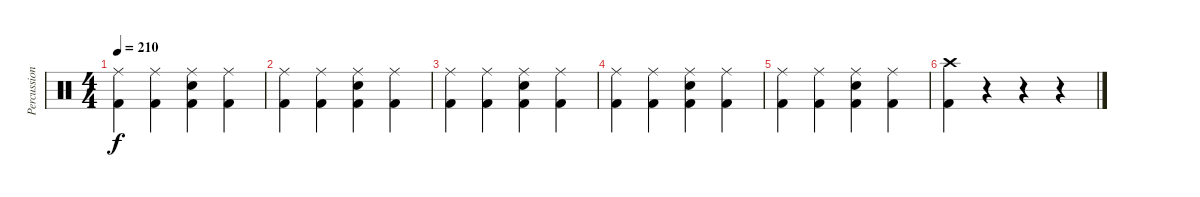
\track ("Percussion" "Percussion") {instrument percussion}
\staff {score}
\articulation defaults
\ts (4 4)
\tempo 210
\clef neutral
\ks c
("Ride (middle)" "Kick (hit) 2").4{dy f} ("Ride (middle)" "Kick (hit) 2").4 ("Ride (middle)" "Snare (hit) 2" "Kick (hit) 2").4 ("Ride (middle)" "Kick (hit) 2").4 |
("Ride (middle)" "Kick (hit) 2").4 ("Ride (middle)" "Kick (hit) 2").4 ("Ride (middle)" "Snare (hit) 2" "Kick (hit) 2").4 ("Ride (middle)" "Kick (hit) 2").4 |
("Ride (middle)" "Kick (hit) 2").4 ("Ride (middle)" "Kick (hit) 2").4 ("Ride (middle)" "Snare (hit) 2" "Kick (hit) 2").4 ("Ride (middle)" "Kick (hit) 2").4 |
("Ride (middle)" "Kick (hit) 2").4 ("Ride (middle)" "Kick (hit) 2").4 ("Ride (middle)" "Snare (hit) 2" "Kick (hit) 2").4 ("Ride (middle)" "Kick (hit) 2").4 |
("Ride (middle)" "Kick (hit) 2").4 ("Ride (middle)" "Kick (hit) 2").4 ("Ride (middle)" "Snare (hit) 2" "Kick (hit) 2").4 ("Ride (middle)" "Kick (hit) 2").4 |
("Crash high (hit)" "Kick (hit) 2").4 r.4 r.4 r.4
